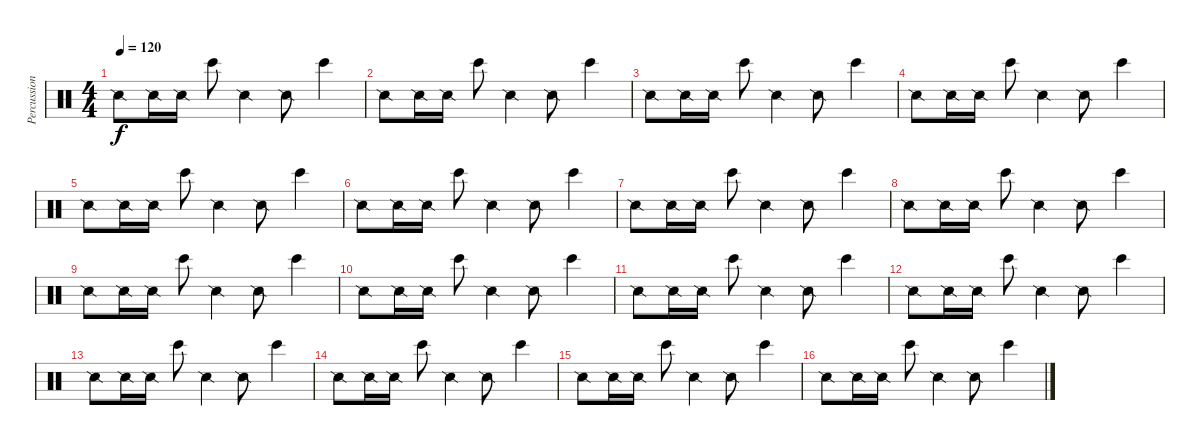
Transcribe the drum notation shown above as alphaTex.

\track ("Percussion" "Percussion") {instrument percussion}
\staff {score}
\articulation defaults
\ts (4 4)
\tempo 120
\clef neutral
\ks c "Snare (side stick) 2".8{dy f} "Snare (side stick) 2".16 "Snare (side stick) 2".16 "Bongo High (hit)".8 "Snare (side stick) 2".4 "Snare (side stick) 2".8 "Bongo High (hit)".4
|
"Snare (side stick) 2".8 "Snare (side stick) 2".16 "Snare (side stick) 2".16 "Bongo High (hit)".8 "Snare (side stick) 2".4 "Snare (side stick) 2".8 "Bongo High (hit)".4 |
"Snare (side stick) 2".8 "Snare (side stick) 2".16 "Snare (side stick) 2".16 "Bongo High (hit)".8 "Snare (side stick) 2".4 "Snare (side stick) 2".8 "Bongo High (hit)".4 |
"Snare (side stick) 2".8 "Snare (side stick) 2".16 "Snare (side stick) 2".16 "Bongo High (hit)".8 "Snare (side stick) 2".4 "Snare (side stick) 2".8 "Bongo High (hit)".4 |
"Snare (side stick) 2".8 "Snare (side stick) 2".16 "Snare (side stick) 2".16 "Bongo High (hit)".8 "Snare (side stick) 2".4 "Snare (side stick) 2".8 "Bongo High (hit)".4 |
"Snare (side stick) 2".8 "Snare (side stick) 2".16 "Snare (side stick) 2".16 "Bongo High (hit)".8 "Snare (side stick) 2".4 "Snare (side stick) 2".8 "Bongo High (hit)".4 |
"Snare (side stick) 2".8 "Snare (side stick) 2".16 "Snare (side stick) 2".16 "Bongo High (hit)".8 "Snare (side stick) 2".4 "Snare (side stick) 2".8 "Bongo High (hit)".4 |
"Snare (side stick) 2".8 "Snare (side stick) 2".16 "Snare (side stick) 2".16 "Bongo High (hit)".8 "Snare (side stick) 2".4 "Snare (side stick) 2".8 "Bongo High (hit)".4 |
"Snare (side stick) 2".8 "Snare (side stick) 2".16 "Snare (side stick) 2".16 "Bongo High (hit)".8 "Snare (side stick) 2".4 "Snare (side stick) 2".8 "Bongo High (hit)".4 |
"Snare (side stick) 2".8 "Snare (side stick) 2".16 "Snare (side stick) 2".16 "Bongo High (hit)".8 "Snare (side stick) 2".4 "Snare (side stick) 2".8 "Bongo High (hit)".4 |
"Snare (side stick) 2".8 "Snare (side stick) 2".16 "Snare (side stick) 2".16 "Bongo High (hit)".8 "Snare (side stick) 2".4 "Snare (side stick) 2".8 "Bongo High (hit)".4 |
"Snare (side stick) 2".8 "Snare (side stick) 2".16 "Snare (side stick) 2".16 "Bongo High (hit)".8 "Snare (side stick) 2".4 "Snare (side stick) 2".8 "Bongo High (hit)".4 |
"Snare (side stick) 2".8 "Snare (side stick) 2".16 "Snare (side stick) 2".16 "Bongo High (hit)".8 "Snare (side stick) 2".4 "Snare (side stick) 2".8 "Bongo High (hit)".4 |
"Snare (side stick) 2".8 "Snare (side stick) 2".16 "Snare (side stick) 2".16 "Bongo High (hit)".8 "Snare (side stick) 2".4 "Snare (side stick) 2".8 "Bongo High (hit)".4 |
"Snare (side stick) 2".8 "Snare (side stick) 2".16 "Snare (side stick) 2".16 "Bongo High (hit)".8 "Snare (side stick) 2".4 "Snare (side stick) 2".8 "Bongo High (hit)".4 |
"Snare (side stick) 2".8 "Snare (side stick) 2".16 "Snare (side stick) 2".16 "Bongo High (hit)".8 "Snare (side stick) 2".4 "Snare (side stick) 2".8 "Bongo High (hit)".4
